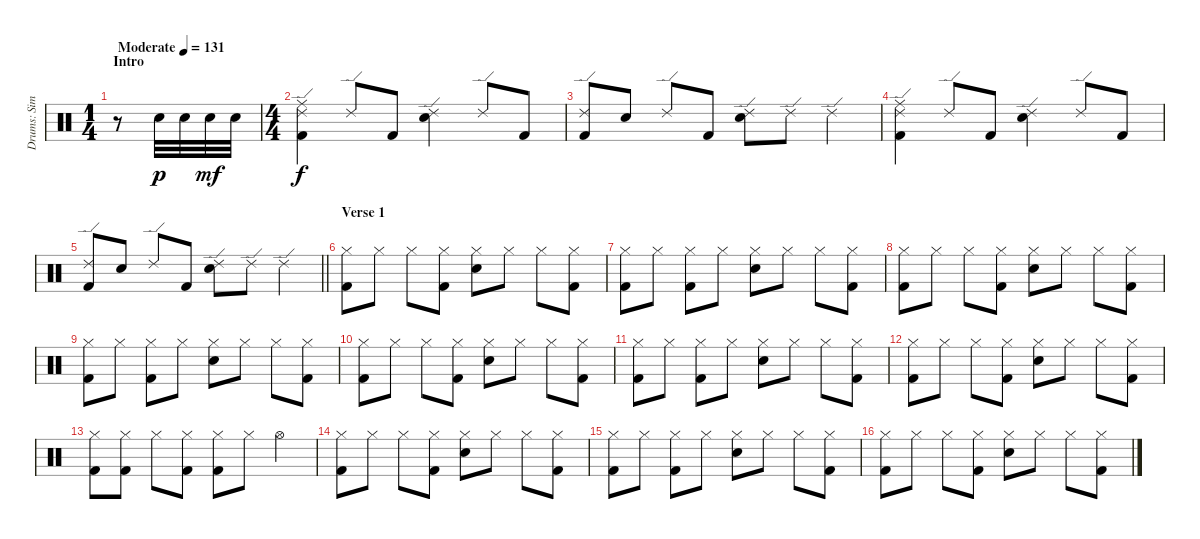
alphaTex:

\track ("Drums: Simon Kirke" "Drums: Sim") {instrument percussion}
\staff {score}
\articulation defaults
\ts (1 4)
\section ("" "Intro")
\tempo (131 "Moderate")
\clef neutral
\ks c
r.8{dy p} "Electric Snare (hit)".32 "Electric Snare (hit)".32 "Electric Snare (hit)".32{dy mf} "Electric Snare (hit)".32 |
\ts (4 4)
("Ride (middle)" "Ride (edge) 2" "Kick (hit) 2").4{dy f} "Ride (edge) 2".8 "Kick (hit) 2".8 ("Ride (edge) 2" "Electric Snare (hit)").4 "Ride (edge) 2".8 "Kick (hit) 2".8 |
("Ride (edge) 2" "Kick (hit) 2").8 "Electric Snare (hit)".8 "Ride (edge) 2".8 "Kick (hit) 2".8 ("Ride (edge) 2" "Electric Snare (hit)").8 "Ride (edge) 2".8 "Ride (edge) 2".4 |
("Ride (middle)" "Ride (edge) 2" "Kick (hit) 2").4 "Ride (edge) 2".8 "Kick (hit) 2".8 ("Ride (edge) 2" "Electric Snare (hit)").4 "Ride (edge) 2".8 "Kick (hit) 2".8 |
\barLineRight lightlight
("Ride (edge) 2" "Kick (hit) 2").8 "Electric Snare (hit)".8 "Ride (edge) 2".8 "Kick (hit) 2".8 ("Ride (edge) 2" "Electric Snare (hit)").8 "Ride (edge) 2".8 "Ride (edge) 2".4 |
\section ("" "Verse 1")
("Hi-Hat (closed)" "Kick (hit) 2").8 "Hi-Hat (closed)".8 "Hi-Hat (closed)".8 ("Hi-Hat (closed)" "Kick (hit) 2").8 ("Hi-Hat (closed)" "Electric Snare (hit)").8 "Hi-Hat (closed)".8 "Hi-Hat (closed)".8 ("Hi-Hat (closed)" "Kick (hit) 2").8 |
("Hi-Hat (closed)" "Kick (hit) 2").8 "Hi-Hat (closed)".8 ("Hi-Hat (closed)" "Kick (hit) 2").8 "Hi-Hat (closed)".8 ("Hi-Hat (closed)" "Electric Snare (hit)").8 "Hi-Hat (closed)".8 "Hi-Hat (closed)".8 ("Hi-Hat (closed)" "Kick (hit) 2").8 |
("Hi-Hat (closed)" "Kick (hit) 2").8 "Hi-Hat (closed)".8 "Hi-Hat (closed)".8 ("Hi-Hat (closed)" "Kick (hit) 2").8 ("Hi-Hat (closed)" "Electric Snare (hit)").8 "Hi-Hat (closed)".8 "Hi-Hat (closed)".8 ("Hi-Hat (closed)" "Kick (hit) 2").8 |
("Hi-Hat (closed)" "Kick (hit) 2").8 "Hi-Hat (closed)".8 ("Hi-Hat (closed)" "Kick (hit) 2").8 "Hi-Hat (closed)".8 ("Hi-Hat (closed)" "Electric Snare (hit)").8 "Hi-Hat (closed)".8 "Hi-Hat (closed)".8 ("Hi-Hat (closed)" "Kick (hit) 2").8 |
("Hi-Hat (closed)" "Kick (hit) 2").8 "Hi-Hat (closed)".8 "Hi-Hat (closed)".8 ("Hi-Hat (closed)" "Kick (hit) 2").8 ("Hi-Hat (closed)" "Electric Snare (hit)").8 "Hi-Hat (closed)".8 "Hi-Hat (closed)".8 ("Hi-Hat (closed)" "Kick (hit) 2").8 |
("Hi-Hat (closed)" "Kick (hit) 2").8 "Hi-Hat (closed)".8 ("Hi-Hat (closed)" "Kick (hit) 2").8 "Hi-Hat (closed)".8 ("Hi-Hat (closed)" "Electric Snare (hit)").8 "Hi-Hat (closed)".8 "Hi-Hat (closed)".8 ("Hi-Hat (closed)" "Kick (hit) 2").8 |
("Hi-Hat (closed)" "Kick (hit) 2").8 "Hi-Hat (closed)".8 "Hi-Hat (closed)".8 ("Hi-Hat (closed)" "Kick (hit) 2").8 ("Hi-Hat (closed)" "Electric Snare (hit)").8 "Hi-Hat (closed)".8 "Hi-Hat (closed)".8 ("Hi-Hat (closed)" "Kick (hit) 2").8 |
("Hi-Hat (closed)" "Kick (hit) 2").8 ("Hi-Hat (closed)" "Kick (hit) 2").8 "Hi-Hat (closed)".8 ("Hi-Hat (closed)" "Kick (hit) 2").8 ("Kick (hit) 2" "Hi-Hat (closed)").8 "Hi-Hat (closed)".8 "Hi-Hat (open)".4 |
("Hi-Hat (closed)" "Kick (hit) 2").8 "Hi-Hat (closed)".8 "Hi-Hat (closed)".8 ("Hi-Hat (closed)" "Kick (hit) 2").8 ("Hi-Hat (closed)" "Electric Snare (hit)").8 "Hi-Hat (closed)".8 "Hi-Hat (closed)".8 ("Hi-Hat (closed)" "Kick (hit) 2").8 |
("Hi-Hat (closed)" "Kick (hit) 2").8 "Hi-Hat (closed)".8 ("Hi-Hat (closed)" "Kick (hit) 2").8 "Hi-Hat (closed)".8 ("Hi-Hat (closed)" "Electric Snare (hit)").8 "Hi-Hat (closed)".8 "Hi-Hat (closed)".8 ("Hi-Hat (closed)" "Kick (hit) 2").8 |
("Hi-Hat (closed)" "Kick (hit) 2").8 "Hi-Hat (closed)".8 "Hi-Hat (closed)".8 ("Hi-Hat (closed)" "Kick (hit) 2").8 ("Hi-Hat (closed)" "Electric Snare (hit)").8 "Hi-Hat (closed)".8 "Hi-Hat (closed)".8 ("Hi-Hat (closed)" "Kick (hit) 2").8
